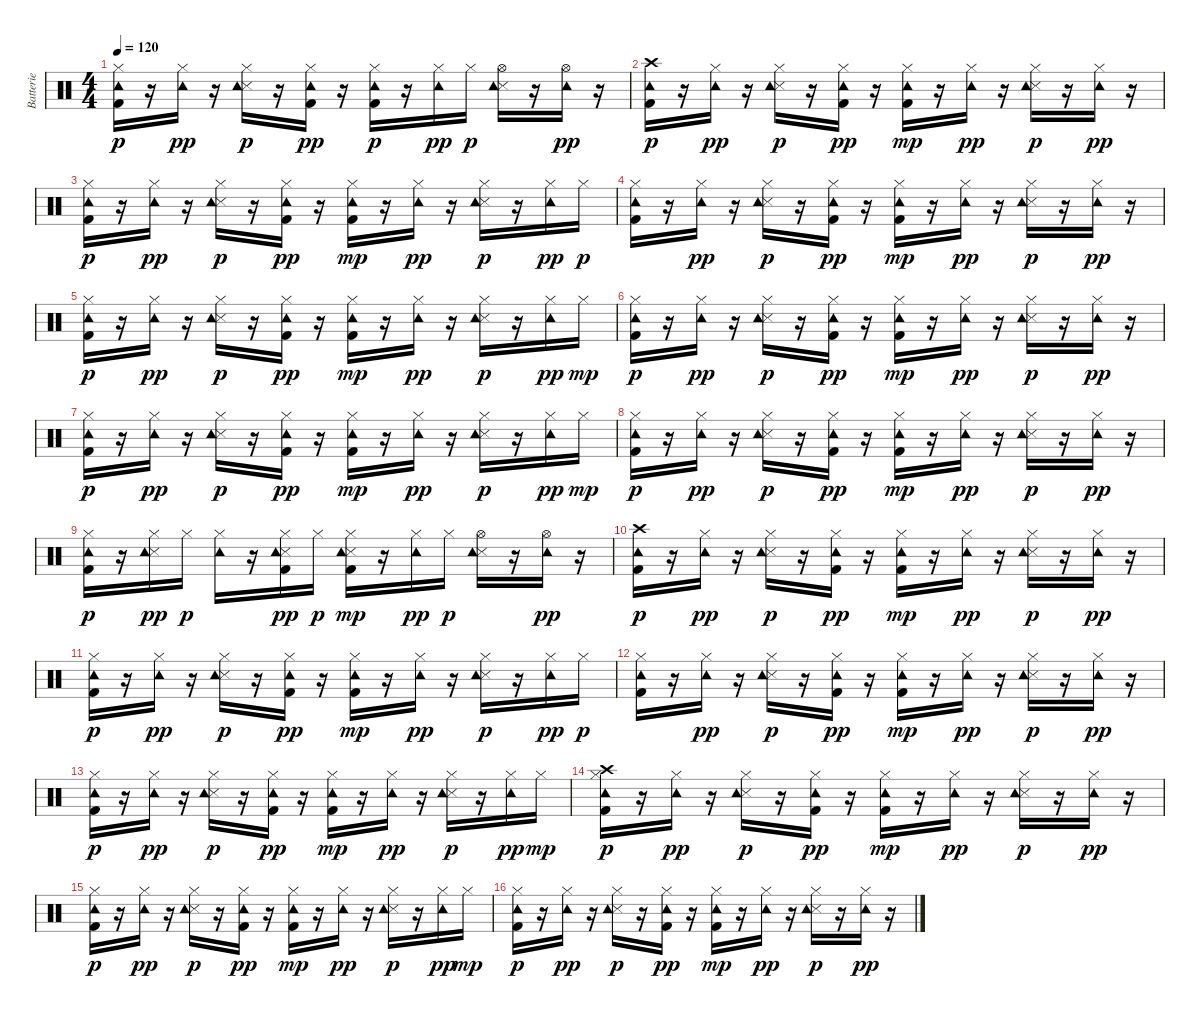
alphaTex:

\track ("Batterie" "Batterie") {instrument percussion}
\staff {score}
\articulation defaults
\ts (4 4)
\tempo 120
\clef neutral
\ks c
("Kick (hit) 2" "Hi-Hat (closed)" "Tambourine (hit)").16{dy p} r.16 ("Hi-Hat (closed)" "Tambourine (hit)").16{dy pp} r.16 ("Hi-Hat (closed)" "Snare (side stick) 3" "Tambourine (hit)").16{dy p} r.16 ("Kick (hit) 2" "Hi-Hat (closed)" "Tambourine (hit)").16{dy pp} r.16 ("Kick (hit) 2" "Hi-Hat (closed)" "Tambourine (hit)").16{dy p} r.16 ("Hi-Hat (closed)" "Tambourine (hit)").16{dy pp} "Hi-Hat (closed)".16{dy p} ("Hi-Hat (open)" "Snare (side stick) 3" "Tambourine (hit)").16 r.16 ("Hi-Hat (open)" "Tambourine (hit)").16{dy pp} r.16 |
("Kick (hit) 2" "Crash high (hit)" "Tambourine (hit)").16{dy p} r.16 ("Hi-Hat (closed)" "Tambourine (hit)").16{dy pp} r.16 ("Hi-Hat (closed)" "Snare (side stick) 3" "Tambourine (hit)").16{dy p} r.16 ("Kick (hit) 2" "Hi-Hat (closed)" "Tambourine (hit)").16{dy pp} r.16 ("Kick (hit) 2" "Hi-Hat (closed)" "Tambourine (hit)").16{dy mp} r.16 ("Hi-Hat (closed)" "Tambourine (hit)").16{dy pp} r.16 ("Hi-Hat (closed)" "Snare (side stick) 3" "Tambourine (hit)").16{dy p} r.16 ("Hi-Hat (closed)" "Tambourine (hit)").16{dy pp} r.16 |
("Kick (hit) 2" "Hi-Hat (closed)" "Tambourine (hit)").16{dy p} r.16 ("Hi-Hat (closed)" "Tambourine (hit)").16{dy pp} r.16 ("Hi-Hat (closed)" "Snare (side stick) 3" "Tambourine (hit)").16{dy p} r.16 ("Kick (hit) 2" "Hi-Hat (closed)" "Tambourine (hit)").16{dy pp} r.16 ("Kick (hit) 2" "Hi-Hat (closed)" "Tambourine (hit)").16{dy mp} r.16 ("Hi-Hat (closed)" "Tambourine (hit)").16{dy pp} r.16 ("Hi-Hat (closed)" "Snare (side stick) 3" "Tambourine (hit)").16{dy p} r.16 ("Hi-Hat (closed)" "Tambourine (hit)").16{dy pp} "Hi-Hat (closed)".16{dy p} |
("Kick (hit) 2" "Hi-Hat (closed)" "Tambourine (hit)").16 r.16 ("Hi-Hat (closed)" "Tambourine (hit)").16{dy pp} r.16 ("Hi-Hat (closed)" "Snare (side stick) 3" "Tambourine (hit)").16{dy p} r.16 ("Kick (hit) 2" "Hi-Hat (closed)" "Tambourine (hit)").16{dy pp} r.16 ("Kick (hit) 2" "Hi-Hat (closed)" "Tambourine (hit)").16{dy mp} r.16 ("Hi-Hat (closed)" "Tambourine (hit)").16{dy pp} r.16 ("Hi-Hat (closed)" "Snare (side stick) 3" "Tambourine (hit)").16{dy p} r.16 ("Hi-Hat (closed)" "Tambourine (hit)").16{dy pp} r.16 |
("Kick (hit) 2" "Hi-Hat (closed)" "Tambourine (hit)").16{dy p} r.16 ("Hi-Hat (closed)" "Tambourine (hit)").16{dy pp} r.16 ("Hi-Hat (closed)" "Snare (side stick) 3" "Tambourine (hit)").16{dy p} r.16 ("Kick (hit) 2" "Hi-Hat (closed)" "Tambourine (hit)").16{dy pp} r.16 ("Kick (hit) 2" "Hi-Hat (closed)" "Tambourine (hit)").16{dy mp} r.16 ("Hi-Hat (closed)" "Tambourine (hit)").16{dy pp} r.16 ("Hi-Hat (closed)" "Snare (side stick) 3" "Tambourine (hit)").16{dy p} r.16 ("Hi-Hat (closed)" "Tambourine (hit)").16{dy pp} "Hi-Hat (closed)".16{dy mp} |
("Kick (hit) 2" "Hi-Hat (closed)" "Tambourine (hit)").16{dy p} r.16 ("Hi-Hat (closed)" "Tambourine (hit)").16{dy pp} r.16 ("Hi-Hat (closed)" "Snare (side stick) 3" "Tambourine (hit)").16{dy p} r.16 ("Kick (hit) 2" "Hi-Hat (closed)" "Tambourine (hit)").16{dy pp} r.16 ("Kick (hit) 2" "Hi-Hat (closed)" "Tambourine (hit)").16{dy mp} r.16 ("Hi-Hat (closed)" "Tambourine (hit)").16{dy pp} r.16 ("Hi-Hat (closed)" "Snare (side stick) 3" "Tambourine (hit)").16{dy p} r.16 ("Hi-Hat (closed)" "Tambourine (hit)").16{dy pp} r.16 |
("Kick (hit) 2" "Hi-Hat (closed)" "Tambourine (hit)").16{dy p} r.16 ("Hi-Hat (closed)" "Tambourine (hit)").16{dy pp} r.16 ("Hi-Hat (closed)" "Snare (side stick) 3" "Tambourine (hit)").16{dy p} r.16 ("Kick (hit) 2" "Hi-Hat (closed)" "Tambourine (hit)").16{dy pp} r.16 ("Kick (hit) 2" "Hi-Hat (closed)" "Tambourine (hit)").16{dy mp} r.16 ("Hi-Hat (closed)" "Tambourine (hit)").16{dy pp} r.16 ("Hi-Hat (closed)" "Snare (side stick) 3" "Tambourine (hit)").16{dy p} r.16 ("Hi-Hat (closed)" "Tambourine (hit)").16{dy pp} "Hi-Hat (closed)".16{dy mp} |
("Kick (hit) 2" "Hi-Hat (closed)" "Tambourine (hit)").16{dy p} r.16 ("Hi-Hat (closed)" "Tambourine (hit)").16{dy pp} r.16 ("Hi-Hat (closed)" "Snare (side stick) 3" "Tambourine (hit)").16{dy p} r.16 ("Kick (hit) 2" "Hi-Hat (closed)" "Tambourine (hit)").16{dy pp} r.16 ("Kick (hit) 2" "Hi-Hat (closed)" "Tambourine (hit)").16{dy mp} r.16 ("Hi-Hat (closed)" "Tambourine (hit)").16{dy pp} r.16 ("Hi-Hat (closed)" "Snare (side stick) 3" "Tambourine (hit)").16{dy p} r.16 ("Hi-Hat (closed)" "Tambourine (hit)").16{dy pp} r.16 |
("Kick (hit) 2" "Hi-Hat (closed)" "Tambourine (hit)").16{dy p} r.16 ("Hi-Hat (closed)" "Snare (side stick) 3" "Tambourine (hit)").16{dy pp} "Hi-Hat (closed)".16{dy p} ("Hi-Hat (closed)" "Tambourine (hit)").16 r.16 ("Kick (hit) 2" "Hi-Hat (closed)" "Snare (side stick) 3" "Tambourine (hit)").16{dy pp} "Hi-Hat (closed)".16{dy p} ("Kick (hit) 2" "Hi-Hat (closed)" "Snare (side stick) 3" "Tambourine (hit)").16{dy mp} r.16 ("Hi-Hat (closed)" "Tambourine (hit)").16{dy pp} "Hi-Hat (closed)".16{dy p} ("Hi-Hat (open)" "Snare (side stick) 3" "Tambourine (hit)").16 r.16 ("Hi-Hat (open)" "Tambourine (hit)").16{dy pp} r.16 |
("Kick (hit) 2" "Crash high (hit)" "Tambourine (hit)").16{dy p} r.16 ("Hi-Hat (closed)" "Tambourine (hit)").16{dy pp} r.16 ("Hi-Hat (closed)" "Snare (side stick) 3" "Tambourine (hit)").16{dy p} r.16 ("Kick (hit) 2" "Hi-Hat (closed)" "Tambourine (hit)").16{dy pp} r.16 ("Kick (hit) 2" "Hi-Hat (closed)" "Tambourine (hit)").16{dy mp} r.16 ("Hi-Hat (closed)" "Tambourine (hit)").16{dy pp} r.16 ("Hi-Hat (closed)" "Snare (side stick) 3" "Tambourine (hit)").16{dy p} r.16 ("Hi-Hat (closed)" "Tambourine (hit)").16{dy pp} r.16 |
("Kick (hit) 2" "Hi-Hat (closed)" "Tambourine (hit)").16{dy p} r.16 ("Hi-Hat (closed)" "Tambourine (hit)").16{dy pp} r.16 ("Hi-Hat (closed)" "Snare (side stick) 3" "Tambourine (hit)").16{dy p} r.16 ("Kick (hit) 2" "Hi-Hat (closed)" "Tambourine (hit)").16{dy pp} r.16 ("Kick (hit) 2" "Hi-Hat (closed)" "Tambourine (hit)").16{dy mp} r.16 ("Hi-Hat (closed)" "Tambourine (hit)").16{dy pp} r.16 ("Hi-Hat (closed)" "Snare (side stick) 3" "Tambourine (hit)").16{dy p} r.16 ("Hi-Hat (closed)" "Tambourine (hit)").16{dy pp} "Hi-Hat (closed)".16{dy p} |
("Kick (hit) 2" "Hi-Hat (closed)" "Tambourine (hit)").16 r.16 ("Hi-Hat (closed)" "Tambourine (hit)").16{dy pp} r.16 ("Hi-Hat (closed)" "Snare (side stick) 3" "Tambourine (hit)").16{dy p} r.16 ("Kick (hit) 2" "Hi-Hat (closed)" "Tambourine (hit)").16{dy pp} r.16 ("Kick (hit) 2" "Hi-Hat (closed)" "Tambourine (hit)").16{dy mp} r.16 ("Hi-Hat (closed)" "Tambourine (hit)").16{dy pp} r.16 ("Hi-Hat (closed)" "Snare (side stick) 3" "Tambourine (hit)").16{dy p} r.16 ("Hi-Hat (closed)" "Tambourine (hit)").16{dy pp} r.16 |
("Kick (hit) 2" "Hi-Hat (closed)" "Tambourine (hit)").16{dy p} r.16 ("Hi-Hat (closed)" "Tambourine (hit)").16{dy pp} r.16 ("Hi-Hat (closed)" "Snare (side stick) 3" "Tambourine (hit)").16{dy p} r.16 ("Kick (hit) 2" "Hi-Hat (closed)" "Tambourine (hit)").16{dy pp} r.16 ("Kick (hit) 2" "Hi-Hat (closed)" "Tambourine (hit)").16{dy mp} r.16 ("Hi-Hat (closed)" "Tambourine (hit)").16{dy pp} r.16 ("Hi-Hat (closed)" "Snare (side stick) 3" "Tambourine (hit)").16{dy p} r.16 ("Hi-Hat (closed)" "Tambourine (hit)").16{dy pp} "Hi-Hat (closed)".16{dy mp} |
("Kick (hit) 2" "Hi-Hat (closed)" "Crash high (hit)" "Tambourine (hit)").16{dy p} r.16 ("Hi-Hat (closed)" "Tambourine (hit)").16{dy pp} r.16 ("Hi-Hat (closed)" "Snare (side stick) 3" "Tambourine (hit)").16{dy p} r.16 ("Kick (hit) 2" "Hi-Hat (closed)" "Tambourine (hit)").16{dy pp} r.16 ("Kick (hit) 2" "Hi-Hat (closed)" "Tambourine (hit)").16{dy mp} r.16 ("Hi-Hat (closed)" "Tambourine (hit)").16{dy pp} r.16 ("Hi-Hat (closed)" "Snare (side stick) 3" "Tambourine (hit)").16{dy p} r.16 ("Hi-Hat (closed)" "Tambourine (hit)").16{dy pp} r.16 |
("Kick (hit) 2" "Hi-Hat (closed)" "Tambourine (hit)").16{dy p} r.16 ("Hi-Hat (closed)" "Tambourine (hit)").16{dy pp} r.16 ("Hi-Hat (closed)" "Snare (side stick) 3" "Tambourine (hit)").16{dy p} r.16 ("Kick (hit) 2" "Hi-Hat (closed)" "Tambourine (hit)").16{dy pp} r.16 ("Kick (hit) 2" "Hi-Hat (closed)" "Tambourine (hit)").16{dy mp} r.16 ("Hi-Hat (closed)" "Tambourine (hit)").16{dy pp} r.16 ("Hi-Hat (closed)" "Snare (side stick) 3" "Tambourine (hit)").16{dy p} r.16 ("Hi-Hat (closed)" "Tambourine (hit)").16{dy pp} "Hi-Hat (closed)".16{dy mp} |
("Kick (hit) 2" "Hi-Hat (closed)" "Tambourine (hit)").16{dy p} r.16 ("Hi-Hat (closed)" "Tambourine (hit)").16{dy pp} r.16 ("Hi-Hat (closed)" "Snare (side stick) 3" "Tambourine (hit)").16{dy p} r.16 ("Kick (hit) 2" "Hi-Hat (closed)" "Tambourine (hit)").16{dy pp} r.16 ("Kick (hit) 2" "Hi-Hat (closed)" "Tambourine (hit)").16{dy mp} r.16 ("Hi-Hat (closed)" "Tambourine (hit)").16{dy pp} r.16 ("Hi-Hat (closed)" "Snare (side stick) 3" "Tambourine (hit)").16{dy p} r.16 ("Hi-Hat (closed)" "Tambourine (hit)").16{dy pp} r.16
